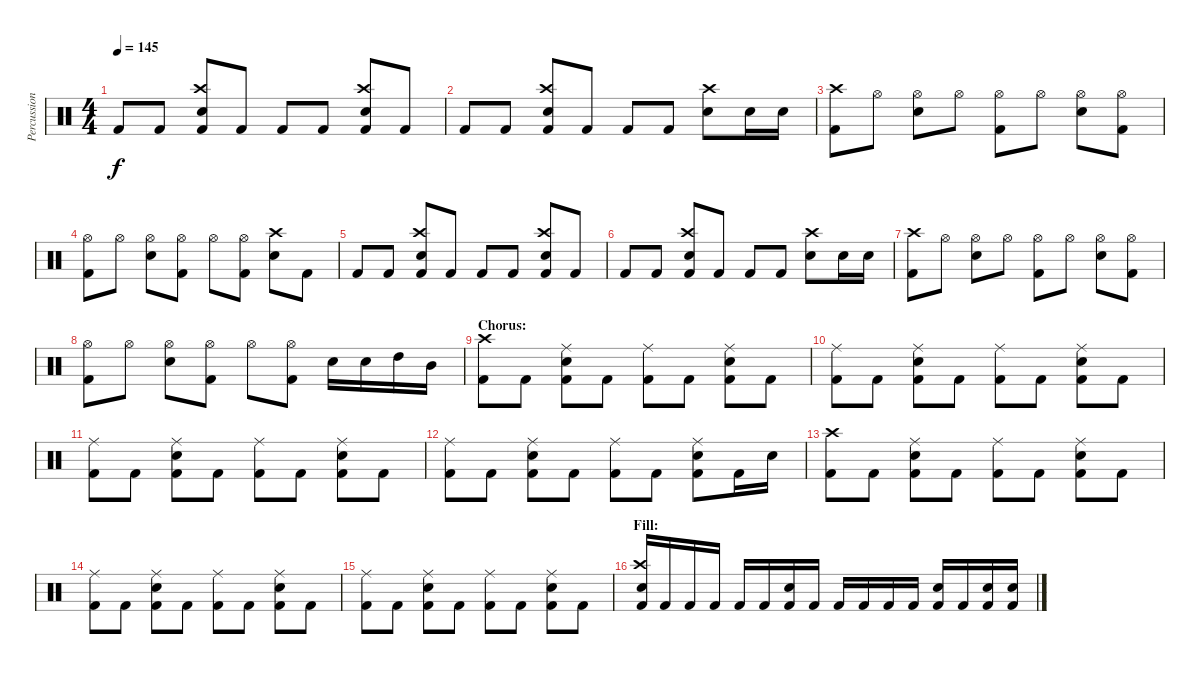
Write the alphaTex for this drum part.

\track ("Percussion" "Percussion") {instrument percussion}
\staff {score}
\articulation defaults
\ts (4 4)
\tempo 145
\clef neutral
\ks c "Kick (hit) 2".8{dy f} "Kick (hit) 2".8
("Crash high (hit)" "Electric Snare (hit)" "Kick (hit) 2").8 "Kick (hit) 2".8 "Kick (hit) 2".8 "Kick (hit) 2".8 ("Crash high (hit)" "Electric Snare (hit)" "Kick (hit) 2").8 "Kick (hit) 2".8 |
"Kick (hit) 2".8 "Kick (hit) 2".8 ("Crash high (hit)" "Electric Snare (hit)" "Kick (hit) 2").8 "Kick (hit) 2".8 "Kick (hit) 2".8 "Kick (hit) 2".8 ("Crash high (hit)" "Electric Snare (hit)").8 "Electric Snare (hit)".16 "Electric Snare (hit)".16 |
("Crash high (hit)" "Kick (hit) 2").8 "Hi-Hat (open)".8 ("Hi-Hat (open)" "Electric Snare (hit)").8 "Hi-Hat (open)".8 ("Hi-Hat (open)" "Kick (hit) 2").8 "Hi-Hat (open)".8 ("Hi-Hat (open)" "Electric Snare (hit)").8 ("Hi-Hat (open)" "Kick (hit) 2").8 |
("Hi-Hat (open)" "Kick (hit) 2").8 "Hi-Hat (open)".8 ("Hi-Hat (open)" "Electric Snare (hit)").8 ("Hi-Hat (open)" "Kick (hit) 2").8 "Hi-Hat (open)".8 ("Hi-Hat (open)" "Kick (hit) 2").8 ("Crash high (hit)" "Electric Snare (hit)").8 "Kick (hit) 2".8 |
"Kick (hit) 2".8 "Kick (hit) 2".8 ("Crash high (hit)" "Electric Snare (hit)" "Kick (hit) 2").8 "Kick (hit) 2".8 "Kick (hit) 2".8 "Kick (hit) 2".8 ("Crash high (hit)" "Electric Snare (hit)" "Kick (hit) 2").8 "Kick (hit) 2".8 |
"Kick (hit) 2".8 "Kick (hit) 2".8 ("Crash high (hit)" "Electric Snare (hit)" "Kick (hit) 2").8 "Kick (hit) 2".8 "Kick (hit) 2".8 "Kick (hit) 2".8 ("Crash high (hit)" "Electric Snare (hit)").8 "Electric Snare (hit)".16 "Electric Snare (hit)".16 |
("Crash high (hit)" "Kick (hit) 2").8 "Hi-Hat (open)".8 ("Hi-Hat (open)" "Electric Snare (hit)").8 "Hi-Hat (open)".8 ("Hi-Hat (open)" "Kick (hit) 2").8 "Hi-Hat (open)".8 ("Hi-Hat (open)" "Electric Snare (hit)").8 ("Hi-Hat (open)" "Kick (hit) 2").8 |
("Hi-Hat (open)" "Kick (hit) 2").8 "Hi-Hat (open)".8 ("Hi-Hat (open)" "Electric Snare (hit)").8 ("Hi-Hat (open)" "Kick (hit) 2").8 "Hi-Hat (open)".8 ("Hi-Hat (open)" "Kick (hit) 2").8 "Electric Snare (hit)".16 "Electric Snare (hit)".16 "High Tom (hit)".16 "Mid Tom (hit)".16 |
\section ("" "Chorus:")
("Crash high (hit)" "Kick (hit) 2").8 "Kick (hit) 2".8 ("Ride (middle)" "Electric Snare (hit)" "Kick (hit) 2").8 "Kick (hit) 2".8 ("Ride (middle)" "Kick (hit) 2").8 "Kick (hit) 2".8 ("Ride (middle)" "Electric Snare (hit)" "Kick (hit) 2").8 "Kick (hit) 2".8 |
("Ride (middle)" "Kick (hit) 2").8 "Kick (hit) 2".8 ("Ride (middle)" "Electric Snare (hit)" "Kick (hit) 2").8 "Kick (hit) 2".8 ("Ride (middle)" "Kick (hit) 2").8 "Kick (hit) 2".8 ("Ride (middle)" "Electric Snare (hit)" "Kick (hit) 2").8 "Kick (hit) 2".8 |
("Ride (middle)" "Kick (hit) 2").8 "Kick (hit) 2".8 ("Ride (middle)" "Electric Snare (hit)" "Kick (hit) 2").8 "Kick (hit) 2".8 ("Ride (middle)" "Kick (hit) 2").8 "Kick (hit) 2".8 ("Ride (middle)" "Electric Snare (hit)" "Kick (hit) 2").8 "Kick (hit) 2".8 |
("Ride (middle)" "Kick (hit) 2").8 "Kick (hit) 2".8 ("Ride (middle)" "Electric Snare (hit)" "Kick (hit) 2").8 "Kick (hit) 2".8 ("Ride (middle)" "Kick (hit) 2").8 "Kick (hit) 2".8 ("Ride (middle)" "Electric Snare (hit)" "Kick (hit) 2").8 "Kick (hit) 2".16 "Electric Snare (hit)".16 |
("Crash high (hit)" "Kick (hit) 2").8 "Kick (hit) 2".8 ("Ride (middle)" "Electric Snare (hit)" "Kick (hit) 2").8 "Kick (hit) 2".8 ("Ride (middle)" "Kick (hit) 2").8 "Kick (hit) 2".8 ("Ride (middle)" "Electric Snare (hit)" "Kick (hit) 2").8 "Kick (hit) 2".8 |
("Ride (middle)" "Kick (hit) 2").8 "Kick (hit) 2".8 ("Ride (middle)" "Electric Snare (hit)" "Kick (hit) 2").8 "Kick (hit) 2".8 ("Ride (middle)" "Kick (hit) 2").8 "Kick (hit) 2".8 ("Ride (middle)" "Electric Snare (hit)" "Kick (hit) 2").8 "Kick (hit) 2".8 |
("Ride (middle)" "Kick (hit) 2").8 "Kick (hit) 2".8 ("Ride (middle)" "Electric Snare (hit)" "Kick (hit) 2").8 "Kick (hit) 2".8 ("Ride (middle)" "Kick (hit) 2").8 "Kick (hit) 2".8 ("Ride (middle)" "Electric Snare (hit)" "Kick (hit) 2").8 "Kick (hit) 2".8 |
\section ("" "Fill:")
("Crash high (hit)" "Electric Snare (hit)" "Kick (hit) 2").16 "Kick (hit) 2".16 "Kick (hit) 2".16 "Kick (hit) 2".16 "Kick (hit) 2".16 "Kick (hit) 2".16 ("Electric Snare (hit)" "Kick (hit) 2").16 "Kick (hit) 2".16 "Kick (hit) 2".16 "Kick (hit) 2".16 "Kick (hit) 2".16 "Kick (hit) 2".16 ("Electric Snare (hit)" "Kick (hit) 2").16 "Kick (hit) 2".16 ("Electric Snare (hit)" "Kick (hit) 2").16 ("Electric Snare (hit)" "Kick (hit) 2").16
